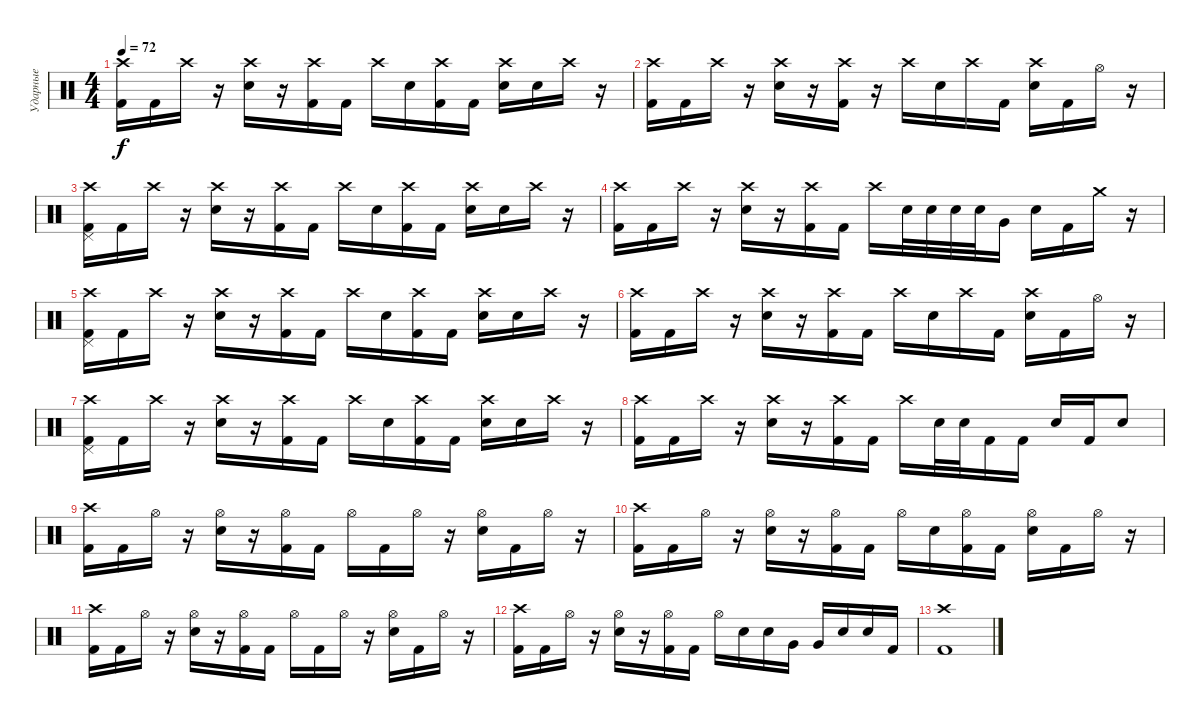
\track ("Ударные" "Ударные") {instrument percussion}
\staff {score}
\articulation defaults
\ts (4 4)
\tempo 72
\clef neutral
\ks c
("Crash high (hit)" "Kick (hit) 2").16{dy f} "Kick (hit) 2".16 "Crash high (hit)".16 r.16 ("Crash high (hit)" "Electric Snare (hit)").16 r.16 ("Crash high (hit)" "Kick (hit) 2").16 "Kick (hit) 2".16 "Crash high (hit)".16 "Electric Snare (hit)".16 ("Crash high (hit)" "Kick (hit) 2").16 "Kick (hit) 2".16 ("Crash high (hit)" "Electric Snare (hit)").16 "Electric Snare (hit)".16 "Crash high (hit)".16 r.16 |
("Crash high (hit)" "Kick (hit) 2").16 "Kick (hit) 2".16 "Crash high (hit)".16 r.16 ("Crash high (hit)" "Electric Snare (hit)").16 r.16 ("Crash high (hit)" "Kick (hit) 2").16 r.16 "Crash high (hit)".16 "Electric Snare (hit)".16 "Crash high (hit)".16 "Kick (hit) 2".16 ("Crash high (hit)" "Electric Snare (hit)").16 "Kick (hit) 2".16 "Hi-Hat (open)".16 r.16 |
("Crash high (hit)" "Pedal Hi-Hat (hit)" "Kick (hit) 2").16 "Kick (hit) 2".16 "Crash high (hit)".16 r.16 ("Crash high (hit)" "Electric Snare (hit)").16 r.16 ("Crash high (hit)" "Kick (hit) 2").16 "Kick (hit) 2".16 "Crash high (hit)".16 "Electric Snare (hit)".16 ("Crash high (hit)" "Kick (hit) 2").16 "Kick (hit) 2".16 ("Crash high (hit)" "Electric Snare (hit)").16 "Electric Snare (hit)".16 "Crash high (hit)".16 r.16 |
("Crash high (hit)" "Kick (hit) 2").16 "Kick (hit) 2".16 "Crash high (hit)".16 r.16 ("Crash high (hit)" "Electric Snare (hit)").16 r.16 ("Crash high (hit)" "Kick (hit) 2").16 "Kick (hit) 2".16 "Crash high (hit)".16 "Electric Snare (hit)".32 "Electric Snare (hit)".32 "Electric Snare (hit)".32 "Electric Snare (hit)".32 "Very Low Tom (hit)".16 "Electric Snare (hit)".16 "Kick (hit) 2".16 "Crash medium (hit)".16 r.16 |
("Crash high (hit)" "Pedal Hi-Hat (hit)" "Kick (hit) 2").16 "Kick (hit) 2".16 "Crash high (hit)".16 r.16 ("Crash high (hit)" "Electric Snare (hit)").16 r.16 ("Crash high (hit)" "Kick (hit) 2").16 "Kick (hit) 2".16 "Crash high (hit)".16 "Electric Snare (hit)".16 ("Crash high (hit)" "Kick (hit) 2").16 "Kick (hit) 2".16 ("Crash high (hit)" "Electric Snare (hit)").16 "Electric Snare (hit)".16 "Crash high (hit)".16 r.16 |
("Crash high (hit)" "Kick (hit) 2").16 "Kick (hit) 2".16 "Crash high (hit)".16 r.16 ("Crash high (hit)" "Electric Snare (hit)").16 r.16 ("Crash high (hit)" "Kick (hit) 2").16 "Kick (hit) 2".16 "Crash high (hit)".16 "Electric Snare (hit)".16 "Crash high (hit)".16 "Kick (hit) 2".16 ("Crash high (hit)" "Electric Snare (hit)").16 "Kick (hit) 2".16 "Hi-Hat (open)".16 r.16 |
("Crash high (hit)" "Pedal Hi-Hat (hit)" "Kick (hit) 2").16 "Kick (hit) 2".16 "Crash high (hit)".16 r.16 ("Crash high (hit)" "Electric Snare (hit)").16 r.16 ("Crash high (hit)" "Kick (hit) 2").16 "Kick (hit) 2".16 "Crash high (hit)".16 "Electric Snare (hit)".16 ("Crash high (hit)" "Kick (hit) 2").16 "Kick (hit) 2".16 ("Crash high (hit)" "Electric Snare (hit)").16 "Electric Snare (hit)".16 "Crash high (hit)".16 r.16 |
("Crash high (hit)" "Kick (hit) 2").16 "Kick (hit) 2".16 "Crash high (hit)".16 r.16 ("Crash high (hit)" "Electric Snare (hit)").16 r.16 ("Crash high (hit)" "Kick (hit) 2").16 "Kick (hit) 2".16 "Crash high (hit)".16 "Electric Snare (hit)".32 "Electric Snare (hit)".32 "Kick (hit) 2".16 "Kick (hit) 2".16 "Electric Snare (hit)".16 "Kick (hit) 2".16 "Electric Snare (hit)".8 |
("Crash high (hit)" "Kick (hit) 2").16 "Kick (hit) 2".16 "Hi-Hat (open)".16 r.16 ("Hi-Hat (open)" "Electric Snare (hit)").16 r.16 ("Hi-Hat (open)" "Kick (hit) 2").16 "Kick (hit) 2".16 "Hi-Hat (open)".16 "Kick (hit) 2".16 "Hi-Hat (open)".16 r.16 ("Hi-Hat (open)" "Electric Snare (hit)").16 "Kick (hit) 2".16 "Hi-Hat (open)".16 r.16 |
("Crash high (hit)" "Kick (hit) 2").16 "Kick (hit) 2".16 "Hi-Hat (open)".16 r.16 ("Hi-Hat (open)" "Electric Snare (hit)").16 r.16 ("Hi-Hat (open)" "Kick (hit) 2").16 "Kick (hit) 2".16 "Hi-Hat (open)".16 "Electric Snare (hit)".16 ("Hi-Hat (open)" "Kick (hit) 2").16 "Kick (hit) 2".16 ("Hi-Hat (open)" "Electric Snare (hit)").16 "Kick (hit) 2".16 "Hi-Hat (open)".16 r.16 |
("Crash high (hit)" "Kick (hit) 2").16 "Kick (hit) 2".16 "Hi-Hat (open)".16 r.16 ("Hi-Hat (open)" "Electric Snare (hit)").16 r.16 ("Hi-Hat (open)" "Kick (hit) 2").16 "Kick (hit) 2".16 "Hi-Hat (open)".16 "Kick (hit) 2".16 "Hi-Hat (open)".16 r.16 ("Hi-Hat (open)" "Electric Snare (hit)").16 "Kick (hit) 2".16 "Hi-Hat (open)".16 r.16 |
("Crash high (hit)" "Kick (hit) 2").16 "Kick (hit) 2".16 "Hi-Hat (open)".16 r.16 ("Hi-Hat (open)" "Electric Snare (hit)").16 r.16 ("Hi-Hat (open)" "Kick (hit) 2").16 "Kick (hit) 2".16 "Hi-Hat (open)".16 "Electric Snare (hit)".16 "Electric Snare (hit)".16 "Very Low Tom (hit)".16 "Very Low Tom (hit)".16 "Electric Snare (hit)".16 "Electric Snare (hit)".16 "Kick (hit) 2".16 |
("Crash high (hit)" "Kick (hit) 2").1
